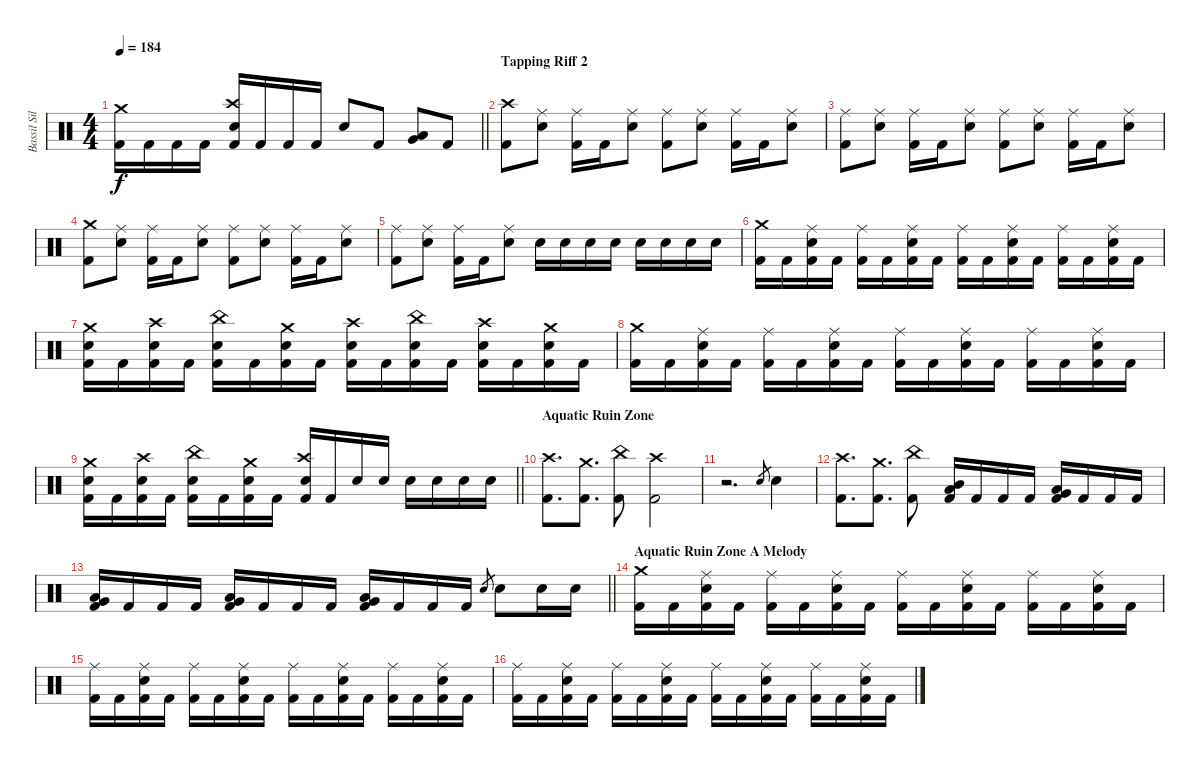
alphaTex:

\track ("Bassil Silver-Hajo" "Bassil Sil") {instrument percussion}
\staff {score}
\articulation defaults
\ts (4 4)
\tempo 184
\clef neutral
\barLineRight lightlight
\ks c
("Crash medium (hit)" "Kick (hit) 2").16{dy f} "Kick (hit) 2".16 "Kick (hit) 2".16 "Kick (hit) 2".16 ("Crash high (hit)" "Snare (hit) 2" "Kick (hit) 2").16 "Kick (hit) 2".16 "Kick (hit) 2".16 "Kick (hit) 2".16 "Snare (hit) 2".8 "Kick (hit) 2".8 ("Low Tom (hit)" "Very Low Tom (hit)").8 "Kick (hit) 2".8 |
\section ("" "Tapping Riff 2")
("Crash high (hit)" "Kick (hit) 2").8 ("Ride (middle)" "Snare (hit) 2").8 ("Ride (middle)" "Kick (hit) 2").16 "Kick (hit) 2".16 ("Ride (middle)" "Snare (hit) 2").8 ("Ride (middle)" "Kick (hit) 2").8 ("Ride (middle)" "Snare (hit) 2").8 ("Ride (middle)" "Kick (hit) 2").16 "Kick (hit) 2".16 ("Ride (middle)" "Snare (hit) 2").8 |
("Ride (middle)" "Kick (hit) 2").8 ("Ride (middle)" "Snare (hit) 2").8 ("Ride (middle)" "Kick (hit) 2").16 "Kick (hit) 2".16 ("Ride (middle)" "Snare (hit) 2").8 ("Ride (middle)" "Kick (hit) 2").8 ("Ride (middle)" "Snare (hit) 2").8 ("Ride (middle)" "Kick (hit) 2").16 "Kick (hit) 2".16 ("Ride (middle)" "Snare (hit) 2").8 |
("Crash medium (hit)" "Kick (hit) 2").8 ("Ride (middle)" "Snare (hit) 2").8 ("Ride (middle)" "Kick (hit) 2").16 "Kick (hit) 2".16 ("Ride (middle)" "Snare (hit) 2").8 ("Ride (middle)" "Kick (hit) 2").8 ("Ride (middle)" "Snare (hit) 2").8 ("Ride (middle)" "Kick (hit) 2").16 "Kick (hit) 2".16 ("Ride (middle)" "Snare (hit) 2").8 |
("Ride (middle)" "Kick (hit) 2").8 ("Ride (middle)" "Snare (hit) 2").8 ("Ride (middle)" "Kick (hit) 2").16 "Kick (hit) 2".16 ("Ride (middle)" "Snare (hit) 2").8 "Snare (hit) 2".16 "Snare (hit) 2".16 "Snare (hit) 2".16 "Snare (hit) 2".16 "Snare (hit) 2".16 "Snare (hit) 2".16 "Snare (hit) 2".16 "Snare (hit) 2".16 |
("Crash medium (hit)" "Kick (hit) 2").16 "Kick (hit) 2".16 ("Ride (middle)" "Snare (hit) 2" "Kick (hit) 2").16 "Kick (hit) 2".16 ("Ride (middle)" "Kick (hit) 2").16 "Kick (hit) 2".16 ("Ride (middle)" "Snare (hit) 2" "Kick (hit) 2").16 "Kick (hit) 2".16 ("Ride (middle)" "Kick (hit) 2").16 "Kick (hit) 2".16 ("Ride (middle)" "Snare (hit) 2" "Kick (hit) 2").16 "Kick (hit) 2".16 ("Ride (middle)" "Kick (hit) 2").16 "Kick (hit) 2".16 ("Ride (middle)" "Snare (hit) 2" "Kick (hit) 2").16 "Kick (hit) 2".16 |
("Crash medium (hit)" "Snare (hit) 2" "Kick (hit) 2").16 "Kick (hit) 2".16 ("Crash high (hit)" "Snare (hit) 2" "Kick (hit) 2").16 "Kick (hit) 2".16 ("China (hit)" "Snare (hit) 2" "Kick (hit) 2").16 "Kick (hit) 2".16 ("Crash medium (hit)" "Snare (hit) 2" "Kick (hit) 2").16 "Kick (hit) 2".16 ("Crash high (hit)" "Snare (hit) 2" "Kick (hit) 2").16 "Kick (hit) 2".16 ("China (hit)" "Snare (hit) 2" "Kick (hit) 2").16 "Kick (hit) 2".16 ("Crash high (hit)" "Snare (hit) 2" "Kick (hit) 2").16 "Kick (hit) 2".16 ("Crash medium (hit)" "Snare (hit) 2" "Kick (hit) 2").16 "Kick (hit) 2".16 |
("Crash medium (hit)" "Kick (hit) 2").16 "Kick (hit) 2".16 ("Ride (middle)" "Snare (hit) 2" "Kick (hit) 2").16 "Kick (hit) 2".16 ("Ride (middle)" "Kick (hit) 2").16 "Kick (hit) 2".16 ("Ride (middle)" "Snare (hit) 2" "Kick (hit) 2").16 "Kick (hit) 2".16 ("Ride (middle)" "Kick (hit) 2").16 "Kick (hit) 2".16 ("Ride (middle)" "Snare (hit) 2" "Kick (hit) 2").16 "Kick (hit) 2".16 ("Ride (middle)" "Kick (hit) 2").16 "Kick (hit) 2".16 ("Ride (middle)" "Snare (hit) 2" "Kick (hit) 2").16 "Kick (hit) 2".16 |
\barLineRight lightlight
("Crash medium (hit)" "Snare (hit) 2" "Kick (hit) 2").16 "Kick (hit) 2".16 ("Crash high (hit)" "Snare (hit) 2" "Kick (hit) 2").16 "Kick (hit) 2".16 ("China (hit)" "Snare (hit) 2" "Kick (hit) 2").16 "Kick (hit) 2".16 ("Crash medium (hit)" "Snare (hit) 2" "Kick (hit) 2").16 "Kick (hit) 2".16 ("Crash high (hit)" "Snare (hit) 2" "Kick (hit) 2").16 "Kick (hit) 2".16 "Snare (hit) 2".16 "Snare (hit) 2".16 "Snare (hit) 2".16 "Snare (hit) 2".16 "Snare (hit) 2".16 "Snare (hit) 2".16 |
\section ("" "Aquatic Ruin Zone")
("Crash high (hit)" "Kick (hit) 2").8{d} ("Crash medium (hit)" "Kick (hit) 2").8{d} ("China (hit)" "Kick (hit) 2").8 ("Crash high (hit)" "Kick (hit) 2").2 |
r.2{d} "Snare (hit) 2".8{gr} "Snare (hit) 2".4 |
("Crash high (hit)" "Kick (hit) 2").8{d} ("Crash medium (hit)" "Kick (hit) 2").8{d} ("China (hit)" "Kick (hit) 2").8 ("Mid Tom (hit)" "Low Tom (hit)" "Kick (hit) 2").16 "Kick (hit) 2".16 "Kick (hit) 2".16 "Kick (hit) 2".16 ("Low Tom (hit)" "Very Low Tom (hit)" "Kick (hit) 2").16 "Kick (hit) 2".16 "Kick (hit) 2".16 "Kick (hit) 2".16 |
\barLineRight lightlight
("Low Tom (hit)" "Very Low Tom (hit)" "Kick (hit) 2").16 "Kick (hit) 2".16 "Kick (hit) 2".16 "Kick (hit) 2".16 ("Very Low Tom (hit)" "Low Floor Tom (hit)" "Kick (hit) 2").16 "Kick (hit) 2".16 "Kick (hit) 2".16 "Kick (hit) 2".16 ("Very Low Tom (hit)" "Low Floor Tom (hit)" "Kick (hit) 2").16 "Kick (hit) 2".16 "Kick (hit) 2".16 "Kick (hit) 2".16 "Snare (hit) 2".8{gr} "Snare (hit) 2".8 "Snare (hit) 2".16 "Snare (hit) 2".16 |
\section ("" "Aquatic Ruin Zone A Melody")
("Crash medium (hit)" "Kick (hit) 2").16 "Kick (hit) 2".16 ("Ride (middle)" "Snare (hit) 2" "Kick (hit) 2").16 "Kick (hit) 2".16 ("Ride (middle)" "Kick (hit) 2").16 "Kick (hit) 2".16 ("Ride (middle)" "Snare (hit) 2" "Kick (hit) 2").16 "Kick (hit) 2".16 ("Ride (middle)" "Kick (hit) 2").16 "Kick (hit) 2".16 ("Ride (middle)" "Snare (hit) 2" "Kick (hit) 2").16 "Kick (hit) 2".16 ("Ride (middle)" "Kick (hit) 2").16 "Kick (hit) 2".16 ("Ride (middle)" "Snare (hit) 2" "Kick (hit) 2").16 "Kick (hit) 2".16 |
("Ride (middle)" "Kick (hit) 2").16 "Kick (hit) 2".16 ("Ride (middle)" "Snare (hit) 2" "Kick (hit) 2").16 "Kick (hit) 2".16 ("Ride (middle)" "Kick (hit) 2").16 "Kick (hit) 2".16 ("Ride (middle)" "Snare (hit) 2" "Kick (hit) 2").16 "Kick (hit) 2".16 ("Ride (middle)" "Kick (hit) 2").16 "Kick (hit) 2".16 ("Ride (middle)" "Snare (hit) 2" "Kick (hit) 2").16 "Kick (hit) 2".16 ("Ride (middle)" "Kick (hit) 2").16 "Kick (hit) 2".16 ("Ride (middle)" "Snare (hit) 2" "Kick (hit) 2").16 "Kick (hit) 2".16 |
("Ride (middle)" "Kick (hit) 2").16 "Kick (hit) 2".16 ("Ride (middle)" "Snare (hit) 2" "Kick (hit) 2").16 "Kick (hit) 2".16 ("Ride (middle)" "Kick (hit) 2").16 "Kick (hit) 2".16 ("Ride (middle)" "Snare (hit) 2" "Kick (hit) 2").16 "Kick (hit) 2".16 ("Ride (middle)" "Kick (hit) 2").16 "Kick (hit) 2".16 ("Ride (middle)" "Snare (hit) 2" "Kick (hit) 2").16 "Kick (hit) 2".16 ("Ride (middle)" "Kick (hit) 2").16 "Kick (hit) 2".16 ("Ride (middle)" "Snare (hit) 2" "Kick (hit) 2").16 "Kick (hit) 2".16
